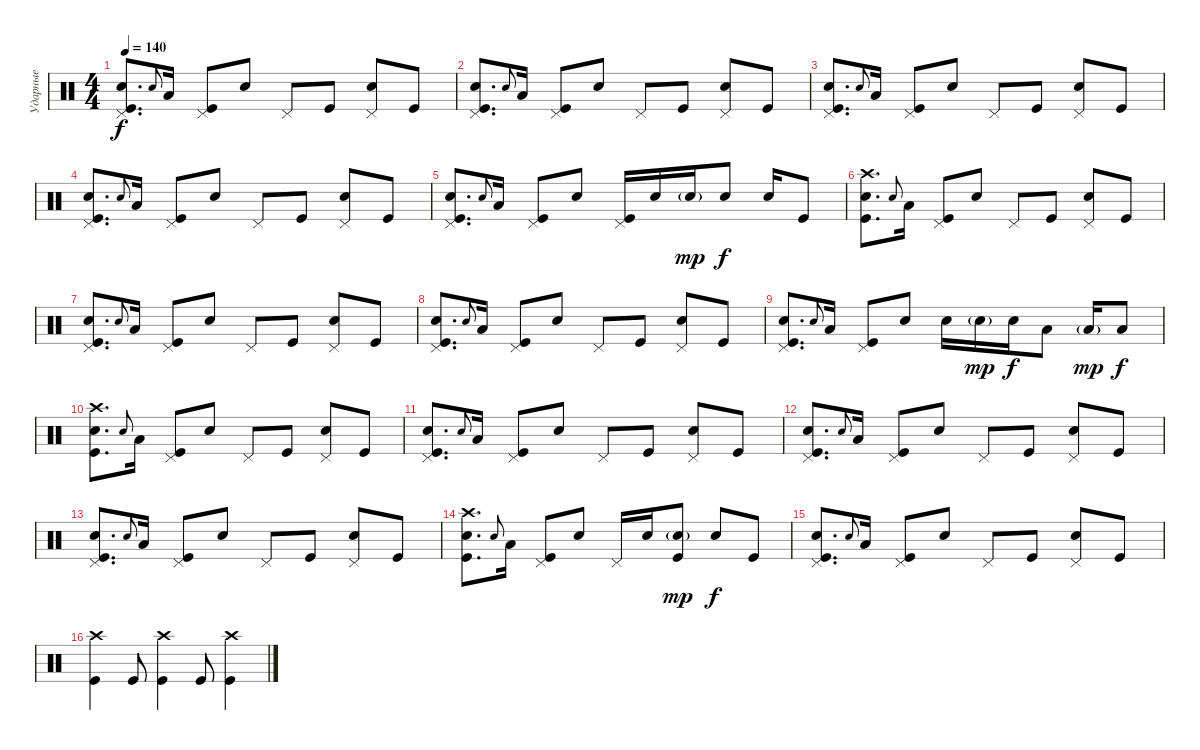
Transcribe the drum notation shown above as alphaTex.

\track ("Ударные" "Ударные") {instrument percussion}
\staff {score}
\articulation defaults
\ts (4 4)
\tempo 140
\clef neutral
\ks c
("Pedal Hi-Hat (hit)" "Snare (hit) 2" "Kick (hit)").8{d dy f} "Snare (hit) 2"{x}.8{gr onbeat} "Low Tom (hit)".16 ("Pedal Hi-Hat (hit)" "Kick (hit)").8 "Snare (hit) 2".8 "Pedal Hi-Hat (hit)".8 "Kick (hit)".8 ("Pedal Hi-Hat (hit)" "Electric Snare (hit)").8 "Kick (hit)".8 |
("Pedal Hi-Hat (hit)" "Snare (hit) 2" "Kick (hit)").8{d} "Snare (hit) 2"{x}.8{gr onbeat} "Low Tom (hit)".16 ("Pedal Hi-Hat (hit)" "Kick (hit)").8 "Snare (hit) 2".8 "Pedal Hi-Hat (hit)".8 "Kick (hit)".8 ("Pedal Hi-Hat (hit)" "Electric Snare (hit)").8 "Kick (hit)".8 |
("Pedal Hi-Hat (hit)" "Snare (hit) 2" "Kick (hit)").8{d} "Snare (hit) 2"{x}.8{gr onbeat} "Low Tom (hit)".16 ("Pedal Hi-Hat (hit)" "Kick (hit)").8 "Snare (hit) 2".8 "Pedal Hi-Hat (hit)".8 "Kick (hit)".8 ("Pedal Hi-Hat (hit)" "Electric Snare (hit)").8 "Kick (hit)".8 |
("Pedal Hi-Hat (hit)" "Snare (hit) 2" "Kick (hit)").8{d} "Snare (hit) 2"{x}.8{gr onbeat} "Low Tom (hit)".16 ("Pedal Hi-Hat (hit)" "Kick (hit)").8 "Snare (hit) 2".8 "Pedal Hi-Hat (hit)".8 "Kick (hit)".8 ("Pedal Hi-Hat (hit)" "Electric Snare (hit)").8 "Kick (hit)".8 |
("Pedal Hi-Hat (hit)" "Snare (hit) 2" "Kick (hit)").8{d} "Snare (hit) 2"{x}.8{gr onbeat} "Low Tom (hit)".16 ("Pedal Hi-Hat (hit)" "Kick (hit)").8 "Snare (hit) 2".8 ("Pedal Hi-Hat (hit)" "Kick (hit)").16 "Snare (hit) 2".16 "Snare (hit) 2"{g}.16{dy mp} "Snare (hit) 2".8{dy f} "Snare (hit) 2".16 "Kick (hit)".8 |
("Crash high (hit)" "Snare (hit) 2" "Kick (hit)").8{d} "Snare (hit) 2"{x}.8{gr onbeat} "Low Tom (hit)".16 ("Pedal Hi-Hat (hit)" "Kick (hit)").8 "Snare (hit) 2".8 "Pedal Hi-Hat (hit)".8 "Kick (hit)".8 ("Pedal Hi-Hat (hit)" "Electric Snare (hit)").8 "Kick (hit)".8 |
("Pedal Hi-Hat (hit)" "Snare (hit) 2" "Kick (hit)").8{d} "Snare (hit) 2"{x}.8{gr onbeat} "Low Tom (hit)".16 ("Pedal Hi-Hat (hit)" "Kick (hit)").8 "Snare (hit) 2".8 "Pedal Hi-Hat (hit)".8 "Kick (hit)".8 ("Pedal Hi-Hat (hit)" "Electric Snare (hit)").8 "Kick (hit)".8 |
("Pedal Hi-Hat (hit)" "Snare (hit) 2" "Kick (hit)").8{d} "Snare (hit) 2"{x}.8{gr onbeat} "Low Tom (hit)".16 ("Pedal Hi-Hat (hit)" "Kick (hit)").8 "Snare (hit) 2".8 "Pedal Hi-Hat (hit)".8 "Kick (hit)".8 ("Pedal Hi-Hat (hit)" "Electric Snare (hit)").8 "Kick (hit)".8 |
("Pedal Hi-Hat (hit)" "Snare (hit) 2" "Kick (hit)").8{d} "Snare (hit) 2"{x}.8{gr onbeat} "Low Tom (hit)".16 ("Pedal Hi-Hat (hit)" "Kick (hit)").8 "Snare (hit) 2".8 "Snare (hit) 2".16 "Snare (hit) 2"{g}.16{dy mp} "Snare (hit) 2".16{dy f} "Low Tom (hit)".8 "Low Tom (hit)"{g}.16{dy mp} "Low Tom (hit)".8{dy f} |
("Crash high (hit)" "Snare (hit) 2" "Kick (hit)").8{d} "Snare (hit) 2"{x}.8{gr onbeat} "Low Tom (hit)".16 ("Pedal Hi-Hat (hit)" "Kick (hit)").8 "Snare (hit) 2".8 "Pedal Hi-Hat (hit)".8 "Kick (hit)".8 ("Pedal Hi-Hat (hit)" "Electric Snare (hit)").8 "Kick (hit)".8 |
("Pedal Hi-Hat (hit)" "Snare (hit) 2" "Kick (hit)").8{d} "Snare (hit) 2"{x}.8{gr onbeat} "Low Tom (hit)".16 ("Pedal Hi-Hat (hit)" "Kick (hit)").8 "Snare (hit) 2".8 "Pedal Hi-Hat (hit)".8 "Kick (hit)".8 ("Pedal Hi-Hat (hit)" "Electric Snare (hit)").8 "Kick (hit)".8 |
("Pedal Hi-Hat (hit)" "Snare (hit) 2" "Kick (hit)").8{d} "Snare (hit) 2"{x}.8{gr onbeat} "Low Tom (hit)".16 ("Pedal Hi-Hat (hit)" "Kick (hit)").8 "Snare (hit) 2".8 "Pedal Hi-Hat (hit)".8 "Kick (hit)".8 ("Pedal Hi-Hat (hit)" "Electric Snare (hit)").8 "Kick (hit)".8 |
("Pedal Hi-Hat (hit)" "Snare (hit) 2" "Kick (hit)").8{d} "Snare (hit) 2"{x}.8{gr onbeat} "Low Tom (hit)".16 ("Pedal Hi-Hat (hit)" "Kick (hit)").8 "Snare (hit) 2".8 "Pedal Hi-Hat (hit)".8 "Kick (hit)".8 ("Pedal Hi-Hat (hit)" "Electric Snare (hit)").8 "Kick (hit)".8 |
("Crash high (hit)" "Snare (hit) 2" "Kick (hit)").8{d} "Snare (hit) 2"{x}.8{gr onbeat} "Low Tom (hit)".16 ("Pedal Hi-Hat (hit)" "Kick (hit)").8 "Snare (hit) 2".8 "Pedal Hi-Hat (hit)".16 "Snare (hit) 2".16 ("Snare (hit) 2"{g} "Kick (hit)").8{dy mp} "Electric Snare (hit)".8{dy f} "Kick (hit)".8 |
("Pedal Hi-Hat (hit)" "Snare (hit) 2" "Kick (hit)").8{d} "Snare (hit) 2"{x}.8{gr onbeat} "Low Tom (hit)".16 ("Pedal Hi-Hat (hit)" "Kick (hit)").8 "Snare (hit) 2".8 "Pedal Hi-Hat (hit)".8 "Kick (hit)".8 ("Pedal Hi-Hat (hit)" "Electric Snare (hit)").8 "Kick (hit)".8 |
("Crash high (hit)" "Kick (hit)").4 "Kick (hit)".8 ("Crash high (hit)" "Kick (hit)").4 "Kick (hit)".8 ("Crash high (hit)" "Kick (hit)").4
